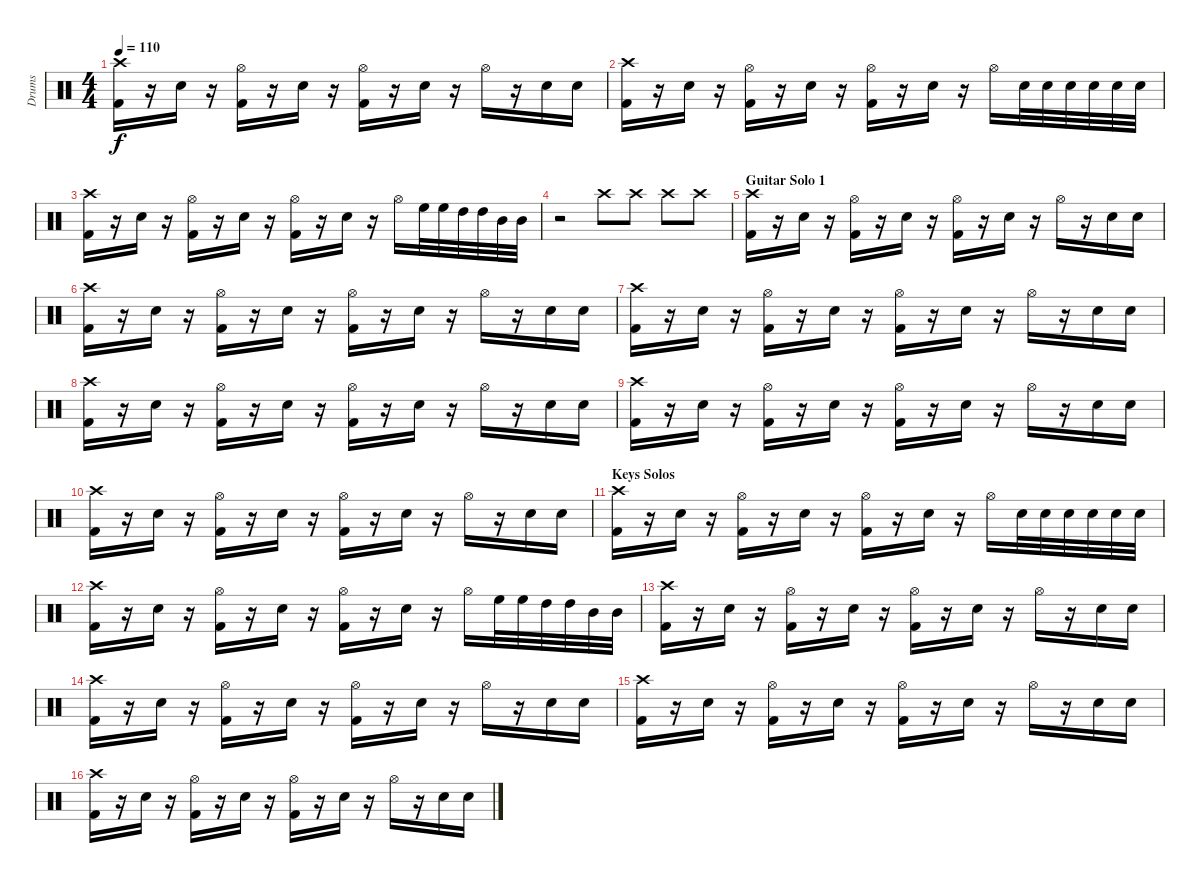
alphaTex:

\track ("Drums" "Drums") {instrument percussion}
\staff {score}
\articulation defaults
\ts (4 4)
\tempo 110
\clef neutral
\ks c
("Crash high (hit)" "Kick (hit) 2").16{dy f} r.16 "Snare (hit) 2".16 r.16 ("Hi-Hat (open)" "Kick (hit) 2").16 r.16 "Snare (hit) 2".16 r.16 ("Hi-Hat (open)" "Kick (hit) 2").16 r.16 "Snare (hit) 2".16 r.16 "Hi-Hat (open)".16 r.16 "Snare (hit) 2".16 "Snare (hit) 2".16 |
("Crash high (hit)" "Kick (hit) 2").16 r.16 "Snare (hit) 2".16 r.16 ("Hi-Hat (open)" "Kick (hit) 2").16 r.16 "Snare (hit) 2".16 r.16 ("Hi-Hat (open)" "Kick (hit) 2").16 r.16 "Snare (hit) 2".16 r.16 "Hi-Hat (open)".16 "Snare (hit) 2".32 "Snare (hit) 2".32 "Snare (hit) 2".32 "Snare (hit) 2".32 "Snare (hit) 2".32 "Snare (hit) 2".32 |
("Crash high (hit)" "Kick (hit) 2").16 r.16 "Snare (hit) 2".16 r.16 ("Hi-Hat (open)" "Kick (hit) 2").16 r.16 "Snare (hit) 2".16 r.16 ("Hi-Hat (open)" "Kick (hit) 2").16 r.16 "Snare (hit) 2".16 r.16 "Hi-Hat (open)".16 "High Floor Tom (hit)".32 "High Floor Tom (hit)".32 "High Tom (hit)".32 "High Tom (hit)".32 "Mid Tom (hit)".32 "Mid Tom (hit)".32 |
r.2 "Crash high (hit)".8 "Crash high (hit)".8 "Crash high (hit)".8 "Crash high (hit)".8 |
\section ("" "Guitar Solo 1")
("Crash high (hit)" "Kick (hit) 2").16 r.16 "Snare (hit) 2".16 r.16 ("Hi-Hat (open)" "Kick (hit) 2").16 r.16 "Snare (hit) 2".16 r.16 ("Hi-Hat (open)" "Kick (hit) 2").16 r.16 "Snare (hit) 2".16 r.16 "Hi-Hat (open)".16 r.16 "Snare (hit) 2".16 "Snare (hit) 2".16 |
("Crash high (hit)" "Kick (hit) 2").16 r.16 "Snare (hit) 2".16 r.16 ("Hi-Hat (open)" "Kick (hit) 2").16 r.16 "Snare (hit) 2".16 r.16 ("Hi-Hat (open)" "Kick (hit) 2").16 r.16 "Snare (hit) 2".16 r.16 "Hi-Hat (open)".16 r.16 "Snare (hit) 2".16 "Snare (hit) 2".16 |
("Crash high (hit)" "Kick (hit) 2").16 r.16 "Snare (hit) 2".16 r.16 ("Hi-Hat (open)" "Kick (hit) 2").16 r.16 "Snare (hit) 2".16 r.16 ("Hi-Hat (open)" "Kick (hit) 2").16 r.16 "Snare (hit) 2".16 r.16 "Hi-Hat (open)".16 r.16 "Snare (hit) 2".16 "Snare (hit) 2".16 |
("Crash high (hit)" "Kick (hit) 2").16 r.16 "Snare (hit) 2".16 r.16 ("Hi-Hat (open)" "Kick (hit) 2").16 r.16 "Snare (hit) 2".16 r.16 ("Hi-Hat (open)" "Kick (hit) 2").16 r.16 "Snare (hit) 2".16 r.16 "Hi-Hat (open)".16 r.16 "Snare (hit) 2".16 "Snare (hit) 2".16 |
("Crash high (hit)" "Kick (hit) 2").16 r.16 "Snare (hit) 2".16 r.16 ("Hi-Hat (open)" "Kick (hit) 2").16 r.16 "Snare (hit) 2".16 r.16 ("Hi-Hat (open)" "Kick (hit) 2").16 r.16 "Snare (hit) 2".16 r.16 "Hi-Hat (open)".16 r.16 "Snare (hit) 2".16 "Snare (hit) 2".16 |
("Crash high (hit)" "Kick (hit) 2").16 r.16 "Snare (hit) 2".16 r.16 ("Hi-Hat (open)" "Kick (hit) 2").16 r.16 "Snare (hit) 2".16 r.16 ("Hi-Hat (open)" "Kick (hit) 2").16 r.16 "Snare (hit) 2".16 r.16 "Hi-Hat (open)".16 r.16 "Snare (hit) 2".16 "Snare (hit) 2".16 |
\section ("" "Keys Solos")
("Crash high (hit)" "Kick (hit) 2").16 r.16 "Snare (hit) 2".16 r.16 ("Hi-Hat (open)" "Kick (hit) 2").16 r.16 "Snare (hit) 2".16 r.16 ("Hi-Hat (open)" "Kick (hit) 2").16 r.16 "Snare (hit) 2".16 r.16 "Hi-Hat (open)".16 "Snare (hit) 2".32 "Snare (hit) 2".32 "Snare (hit) 2".32 "Snare (hit) 2".32 "Snare (hit) 2".32 "Snare (hit) 2".32 |
("Crash high (hit)" "Kick (hit) 2").16 r.16 "Snare (hit) 2".16 r.16 ("Hi-Hat (open)" "Kick (hit) 2").16 r.16 "Snare (hit) 2".16 r.16 ("Hi-Hat (open)" "Kick (hit) 2").16 r.16 "Snare (hit) 2".16 r.16 "Hi-Hat (open)".16 "High Floor Tom (hit)".32 "High Floor Tom (hit)".32 "High Tom (hit)".32 "High Tom (hit)".32 "Mid Tom (hit)".32 "Mid Tom (hit)".32 |
("Crash high (hit)" "Kick (hit) 2").16 r.16 "Snare (hit) 2".16 r.16 ("Hi-Hat (open)" "Kick (hit) 2").16 r.16 "Snare (hit) 2".16 r.16 ("Hi-Hat (open)" "Kick (hit) 2").16 r.16 "Snare (hit) 2".16 r.16 "Hi-Hat (open)".16 r.16 "Snare (hit) 2".16 "Snare (hit) 2".16 |
("Crash high (hit)" "Kick (hit) 2").16 r.16 "Snare (hit) 2".16 r.16 ("Hi-Hat (open)" "Kick (hit) 2").16 r.16 "Snare (hit) 2".16 r.16 ("Hi-Hat (open)" "Kick (hit) 2").16 r.16 "Snare (hit) 2".16 r.16 "Hi-Hat (open)".16 r.16 "Snare (hit) 2".16 "Snare (hit) 2".16 |
("Crash high (hit)" "Kick (hit) 2").16 r.16 "Snare (hit) 2".16 r.16 ("Hi-Hat (open)" "Kick (hit) 2").16 r.16 "Snare (hit) 2".16 r.16 ("Hi-Hat (open)" "Kick (hit) 2").16 r.16 "Snare (hit) 2".16 r.16 "Hi-Hat (open)".16 r.16 "Snare (hit) 2".16 "Snare (hit) 2".16 |
("Crash high (hit)" "Kick (hit) 2").16 r.16 "Snare (hit) 2".16 r.16 ("Hi-Hat (open)" "Kick (hit) 2").16 r.16 "Snare (hit) 2".16 r.16 ("Hi-Hat (open)" "Kick (hit) 2").16 r.16 "Snare (hit) 2".16 r.16 "Hi-Hat (open)".16 r.16 "Snare (hit) 2".16 "Snare (hit) 2".16
